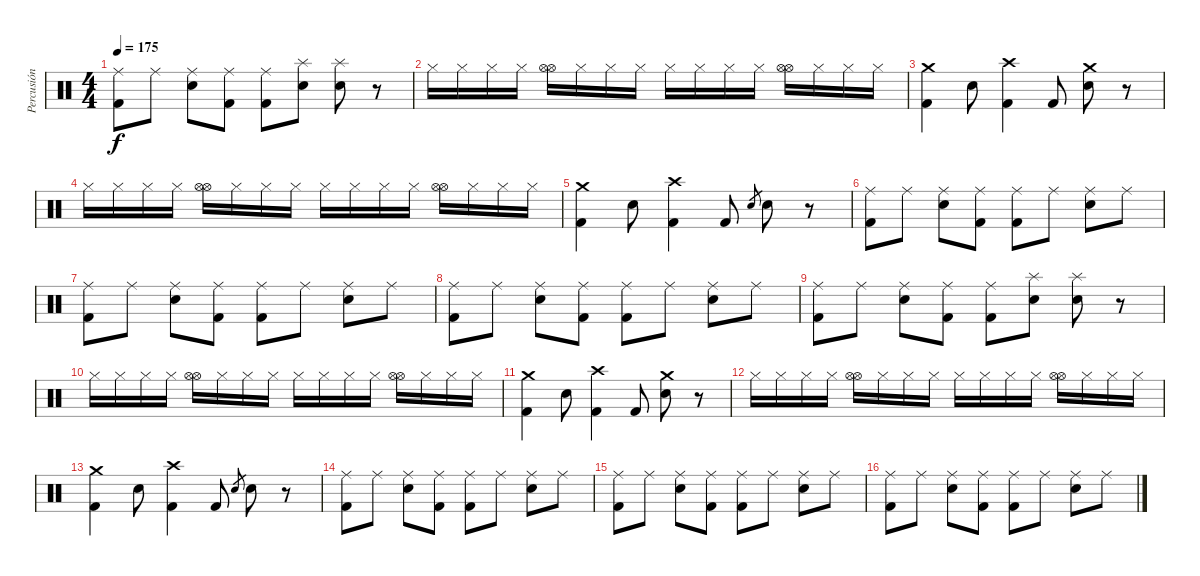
\track ("Percusión" "Percusión") {instrument percussion}
\staff {score}
\articulation defaults
\ts (4 4)
\tempo 175
\clef neutral
\ks c
("Ride (middle)" "Kick (hit) 2").8{dy f} "Ride (middle)".8 ("Ride (middle)" "Electric Snare (hit)").8 ("Ride (middle)" "Kick (hit) 2").8 ("Kick (hit) 2" "Ride (middle)").8 ("Splash (hit)" "Electric Snare (hit)").8 ("Splash (hit)" "Electric Snare (hit)").8 r.8 |
"Hi-Hat (closed)".16 "Hi-Hat (closed)".16 "Hi-Hat (closed)".16 "Hi-Hat (closed)".16 ("Hi-Hat (open)" "Hi-Hat (open)").16 "Hi-Hat (closed)".16 "Hi-Hat (closed)".16 "Hi-Hat (closed)".16 "Hi-Hat (closed)".16 "Hi-Hat (closed)".16 "Hi-Hat (closed)".16 "Hi-Hat (closed)".16 ("Hi-Hat (open)" "Hi-Hat (open)").16 "Hi-Hat (closed)".16 "Hi-Hat (closed)".16 "Hi-Hat (closed)".16 |
("Crash medium (hit)" "Kick (hit) 2").4 "Electric Snare (hit)".8 ("Kick (hit) 2" "Crash high (hit)").4 "Kick (hit) 2".8 ("Electric Snare (hit)" "Crash medium (hit)").8 r.8 |
"Hi-Hat (closed)".16 "Hi-Hat (closed)".16 "Hi-Hat (closed)".16 "Hi-Hat (closed)".16 ("Hi-Hat (open)" "Hi-Hat (open)").16 "Hi-Hat (closed)".16 "Hi-Hat (closed)".16 "Hi-Hat (closed)".16 "Hi-Hat (closed)".16 "Hi-Hat (closed)".16 "Hi-Hat (closed)".16 "Hi-Hat (closed)".16 ("Hi-Hat (open)" "Hi-Hat (open)").16 "Hi-Hat (closed)".16 "Hi-Hat (closed)".16 "Hi-Hat (closed)".16 |
("Crash medium (hit)" "Kick (hit) 2").4 "Electric Snare (hit)".8 ("Kick (hit) 2" "Crash high (hit)").4 "Kick (hit) 2".8 "Electric Snare (hit)".8{gr} "Electric Snare (hit)".8 r.8 |
("Ride (middle)" "Kick (hit) 2").8 "Ride (middle)".8 ("Ride (middle)" "Electric Snare (hit)").8 ("Ride (middle)" "Kick (hit) 2").8 ("Kick (hit) 2" "Ride (middle)").8 "Ride (middle)".8 ("Electric Snare (hit)" "Ride (middle)").8 "Ride (middle)".8 |
("Ride (middle)" "Kick (hit) 2").8 "Ride (middle)".8 ("Ride (middle)" "Electric Snare (hit)").8 ("Ride (middle)" "Kick (hit) 2").8 ("Kick (hit) 2" "Ride (middle)").8 "Ride (middle)".8 ("Electric Snare (hit)" "Ride (middle)").8 "Ride (middle)".8 |
("Ride (middle)" "Kick (hit) 2").8 "Ride (middle)".8 ("Ride (middle)" "Electric Snare (hit)").8 ("Ride (middle)" "Kick (hit) 2").8 ("Kick (hit) 2" "Ride (middle)").8 "Ride (middle)".8 ("Electric Snare (hit)" "Ride (middle)").8 "Ride (middle)".8 |
("Ride (middle)" "Kick (hit) 2").8 "Ride (middle)".8 ("Ride (middle)" "Electric Snare (hit)").8 ("Ride (middle)" "Kick (hit) 2").8 ("Kick (hit) 2" "Ride (middle)").8 ("Electric Snare (hit)" "Splash (hit)").8 ("Splash (hit)" "Electric Snare (hit)").8 r.8 |
"Hi-Hat (closed)".16 "Hi-Hat (closed)".16 "Hi-Hat (closed)".16 "Hi-Hat (closed)".16 ("Hi-Hat (open)" "Hi-Hat (open)").16 "Hi-Hat (closed)".16 "Hi-Hat (closed)".16 "Hi-Hat (closed)".16 "Hi-Hat (closed)".16 "Hi-Hat (closed)".16 "Hi-Hat (closed)".16 "Hi-Hat (closed)".16 ("Hi-Hat (open)" "Hi-Hat (open)").16 "Hi-Hat (closed)".16 "Hi-Hat (closed)".16 "Hi-Hat (closed)".16 |
("Crash medium (hit)" "Kick (hit) 2").4 "Electric Snare (hit)".8 ("Kick (hit) 2" "Crash high (hit)").4 "Kick (hit) 2".8 ("Electric Snare (hit)" "Crash medium (hit)").8 r.8 |
"Hi-Hat (closed)".16 "Hi-Hat (closed)".16 "Hi-Hat (closed)".16 "Hi-Hat (closed)".16 ("Hi-Hat (open)" "Hi-Hat (open)").16 "Hi-Hat (closed)".16 "Hi-Hat (closed)".16 "Hi-Hat (closed)".16 "Hi-Hat (closed)".16 "Hi-Hat (closed)".16 "Hi-Hat (closed)".16 "Hi-Hat (closed)".16 ("Hi-Hat (open)" "Hi-Hat (open)").16 "Hi-Hat (closed)".16 "Hi-Hat (closed)".16 "Hi-Hat (closed)".16 |
("Crash medium (hit)" "Kick (hit) 2").4 "Electric Snare (hit)".8 ("Kick (hit) 2" "Crash high (hit)").4 "Kick (hit) 2".8 "Electric Snare (hit)".8{gr} "Electric Snare (hit)".8 r.8 |
("Ride (middle)" "Kick (hit) 2").8 "Ride (middle)".8 ("Ride (middle)" "Electric Snare (hit)").8 ("Ride (middle)" "Kick (hit) 2").8 ("Kick (hit) 2" "Ride (middle)").8 "Ride (middle)".8 ("Electric Snare (hit)" "Ride (middle)").8 "Ride (middle)".8 |
("Ride (middle)" "Kick (hit) 2").8 "Ride (middle)".8 ("Ride (middle)" "Electric Snare (hit)").8 ("Ride (middle)" "Kick (hit) 2").8 ("Kick (hit) 2" "Ride (middle)").8 "Ride (middle)".8 ("Electric Snare (hit)" "Ride (middle)").8 "Ride (middle)".8 |
("Ride (middle)" "Kick (hit) 2").8 "Ride (middle)".8 ("Ride (middle)" "Electric Snare (hit)").8 ("Ride (middle)" "Kick (hit) 2").8 ("Kick (hit) 2" "Ride (middle)").8 "Ride (middle)".8 ("Electric Snare (hit)" "Ride (middle)").8 "Ride (middle)".8
